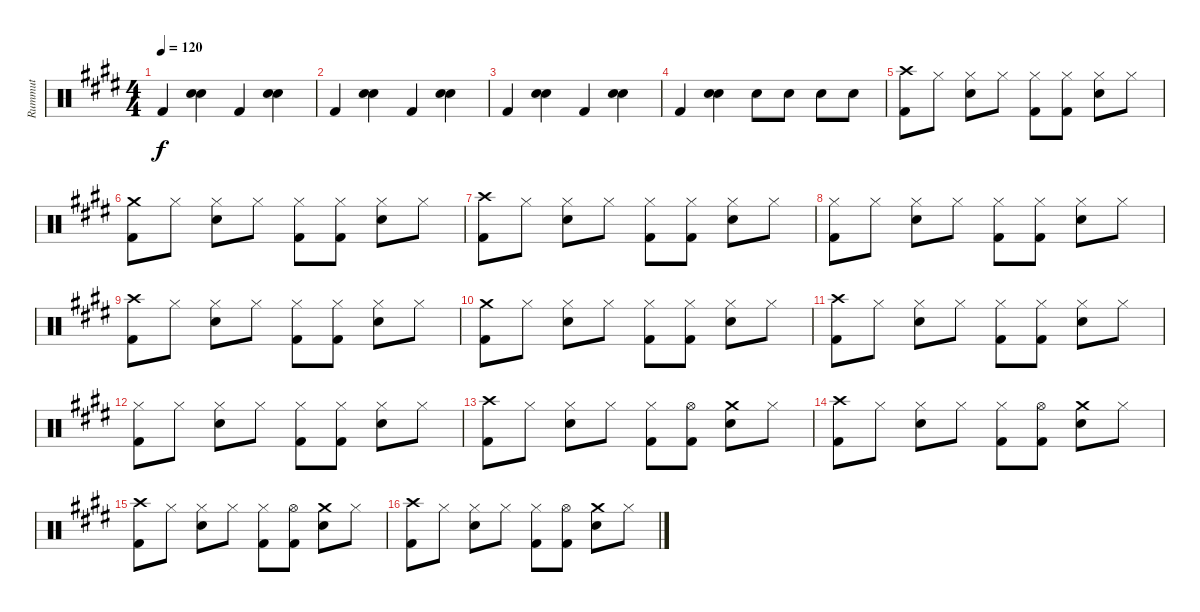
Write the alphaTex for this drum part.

\track ("Rummut" "Rummut") {instrument percussion}
\staff {score}
\articulation defaults
\ts (4 4)
\tempo 120
\clef neutral
\ks e "Kick (hit) 2".4{dy f}
("Electric Snare (hit)" "Hand Clap (hit)").4{bd 120} "Kick (hit) 2".4 ("Electric Snare (hit)" "Hand Clap (hit)").4{bd 120} |
"Kick (hit) 2".4 ("Electric Snare (hit)" "Hand Clap (hit)").4{bd 120} "Kick (hit) 2".4 ("Electric Snare (hit)" "Hand Clap (hit)").4{bd 120} |
"Kick (hit) 2".4 ("Electric Snare (hit)" "Hand Clap (hit)").4{bd 120} "Kick (hit) 2".4 ("Electric Snare (hit)" "Hand Clap (hit)").4{bd 120} |
"Kick (hit) 2".4 ("Electric Snare (hit)" "Hand Clap (hit)").4{bd 120} "Electric Snare (hit)".8 "Electric Snare (hit)".8 "Electric Snare (hit)".8 "Electric Snare (hit)".8 |
("Crash high (hit)" "Kick (hit) 2").8 "Hi-Hat (closed)".8 ("Hi-Hat (closed)" "Electric Snare (hit)").8 "Hi-Hat (closed)".8 ("Hi-Hat (closed)" "Kick (hit) 2").8 ("Hi-Hat (closed)" "Kick (hit) 2").8 ("Hi-Hat (closed)" "Electric Snare (hit)").8 "Hi-Hat (closed)".8 |
("Crash medium (hit)" "Kick (hit) 2").8 "Hi-Hat (closed)".8 ("Hi-Hat (closed)" "Electric Snare (hit)").8 "Hi-Hat (closed)".8 ("Hi-Hat (closed)" "Kick (hit) 2").8 ("Hi-Hat (closed)" "Kick (hit) 2").8 ("Hi-Hat (closed)" "Electric Snare (hit)").8 "Hi-Hat (closed)".8 |
("Crash high (hit)" "Kick (hit) 2").8 "Hi-Hat (closed)".8 ("Hi-Hat (closed)" "Electric Snare (hit)").8 "Hi-Hat (closed)".8 ("Hi-Hat (closed)" "Kick (hit) 2").8 ("Hi-Hat (closed)" "Kick (hit) 2").8 ("Hi-Hat (closed)" "Electric Snare (hit)").8 "Hi-Hat (closed)".8 |
("Hi-Hat (closed)" "Kick (hit) 2").8 "Hi-Hat (closed)".8 ("Hi-Hat (closed)" "Electric Snare (hit)").8 "Hi-Hat (closed)".8 ("Hi-Hat (closed)" "Kick (hit) 2").8 ("Hi-Hat (closed)" "Kick (hit) 2").8 ("Hi-Hat (closed)" "Electric Snare (hit)").8 "Hi-Hat (closed)".8 |
("Crash high (hit)" "Kick (hit) 2").8 "Hi-Hat (closed)".8 ("Hi-Hat (closed)" "Electric Snare (hit)").8 "Hi-Hat (closed)".8 ("Hi-Hat (closed)" "Kick (hit) 2").8 ("Hi-Hat (closed)" "Kick (hit) 2").8 ("Hi-Hat (closed)" "Electric Snare (hit)").8 "Hi-Hat (closed)".8 |
("Crash medium (hit)" "Kick (hit) 2").8 "Hi-Hat (closed)".8 ("Hi-Hat (closed)" "Electric Snare (hit)").8 "Hi-Hat (closed)".8 ("Hi-Hat (closed)" "Kick (hit) 2").8 ("Hi-Hat (closed)" "Kick (hit) 2").8 ("Hi-Hat (closed)" "Electric Snare (hit)").8 "Hi-Hat (closed)".8 |
("Crash high (hit)" "Kick (hit) 2").8 "Hi-Hat (closed)".8 ("Hi-Hat (closed)" "Electric Snare (hit)").8 "Hi-Hat (closed)".8 ("Hi-Hat (closed)" "Kick (hit) 2").8 ("Hi-Hat (closed)" "Kick (hit) 2").8 ("Hi-Hat (closed)" "Electric Snare (hit)").8 "Hi-Hat (closed)".8 |
("Hi-Hat (closed)" "Kick (hit) 2").8 "Hi-Hat (closed)".8 ("Hi-Hat (closed)" "Electric Snare (hit)").8 "Hi-Hat (closed)".8 ("Hi-Hat (closed)" "Kick (hit) 2").8 ("Hi-Hat (closed)" "Kick (hit) 2").8 ("Hi-Hat (closed)" "Electric Snare (hit)").8 "Hi-Hat (closed)".8 |
("Crash high (hit)" "Kick (hit) 2").8 "Hi-Hat (closed)".8 ("Hi-Hat (closed)" "Electric Snare (hit)").8 "Hi-Hat (closed)".8 ("Hi-Hat (closed)" "Kick (hit) 2").8 ("Hi-Hat (open)" "Kick (hit) 2").8 ("Crash medium (hit)" "Electric Snare (hit)").8 "Hi-Hat (closed)".8 |
("Crash high (hit)" "Kick (hit) 2").8 "Hi-Hat (closed)".8 ("Hi-Hat (closed)" "Electric Snare (hit)").8 "Hi-Hat (closed)".8 ("Hi-Hat (closed)" "Kick (hit) 2").8 ("Hi-Hat (open)" "Kick (hit) 2").8 ("Crash medium (hit)" "Electric Snare (hit)").8 "Hi-Hat (closed)".8 |
("Crash high (hit)" "Kick (hit) 2").8 "Hi-Hat (closed)".8 ("Hi-Hat (closed)" "Electric Snare (hit)").8 "Hi-Hat (closed)".8 ("Hi-Hat (closed)" "Kick (hit) 2").8 ("Hi-Hat (open)" "Kick (hit) 2").8 ("Crash medium (hit)" "Electric Snare (hit)").8 "Hi-Hat (closed)".8 |
("Crash high (hit)" "Kick (hit) 2").8 "Hi-Hat (closed)".8 ("Hi-Hat (closed)" "Electric Snare (hit)").8 "Hi-Hat (closed)".8 ("Hi-Hat (closed)" "Kick (hit) 2").8 ("Hi-Hat (open)" "Kick (hit) 2").8 ("Crash medium (hit)" "Electric Snare (hit)").8 "Hi-Hat (closed)".8
